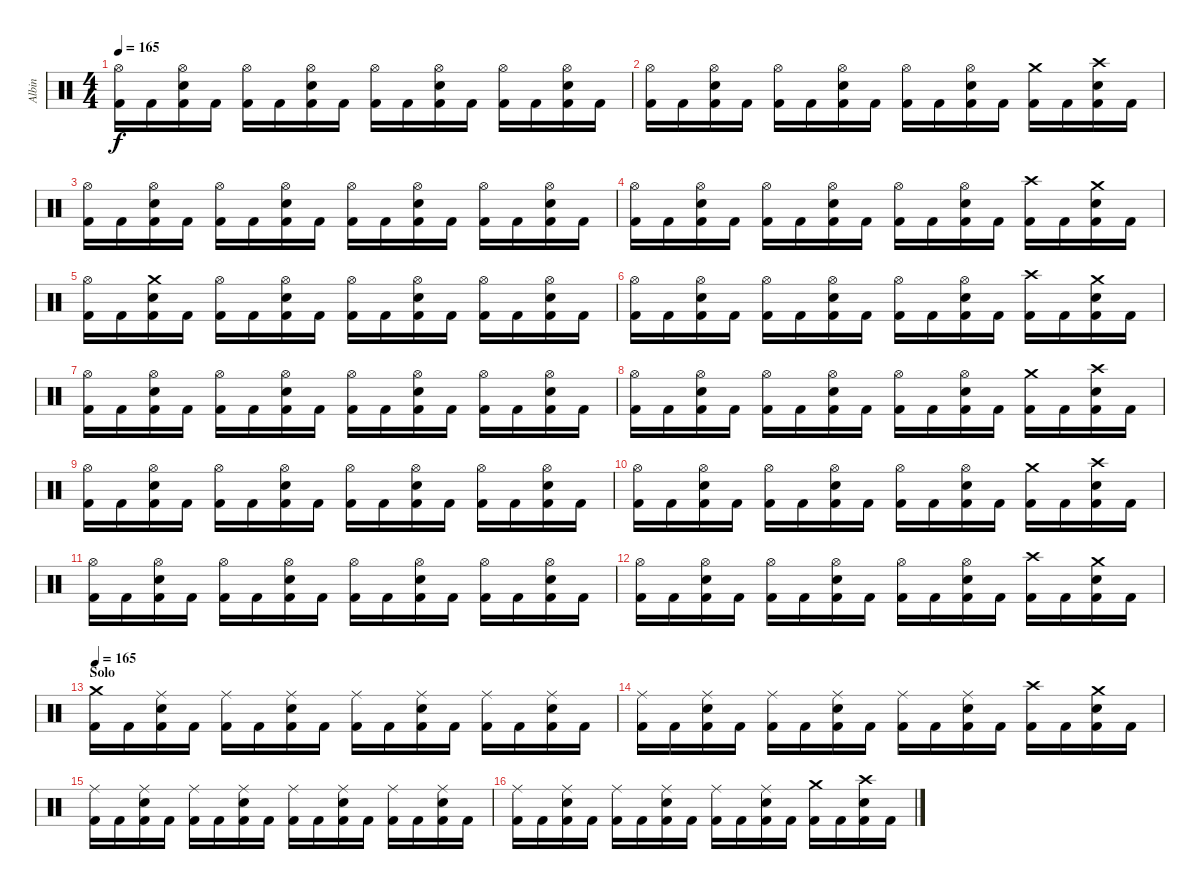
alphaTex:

\track ("Albin" "Albin") {instrument percussion}
\staff {score}
\articulation defaults
\ts (4 4)
\tempo 165
\clef neutral
\ks c
("Hi-Hat (open)" "Kick (hit) 2").16{dy f} "Kick (hit) 2".16 ("Hi-Hat (open)" "Electric Snare (hit)" "Kick (hit) 2").16 "Kick (hit) 2".16 ("Hi-Hat (open)" "Kick (hit) 2").16 "Kick (hit) 2".16 ("Hi-Hat (open)" "Electric Snare (hit)" "Kick (hit) 2").16 "Kick (hit) 2".16 ("Hi-Hat (open)" "Kick (hit) 2").16 "Kick (hit) 2".16 ("Hi-Hat (open)" "Electric Snare (hit)" "Kick (hit) 2").16 "Kick (hit) 2".16 ("Hi-Hat (open)" "Kick (hit) 2").16 "Kick (hit) 2".16 ("Hi-Hat (open)" "Electric Snare (hit)" "Kick (hit) 2").16 "Kick (hit) 2".16 |
("Hi-Hat (open)" "Kick (hit) 2").16 "Kick (hit) 2".16 ("Hi-Hat (open)" "Electric Snare (hit)" "Kick (hit) 2").16 "Kick (hit) 2".16 ("Hi-Hat (open)" "Kick (hit) 2").16 "Kick (hit) 2".16 ("Hi-Hat (open)" "Electric Snare (hit)" "Kick (hit) 2").16 "Kick (hit) 2".16 ("Hi-Hat (open)" "Kick (hit) 2").16 "Kick (hit) 2".16 ("Hi-Hat (open)" "Electric Snare (hit)" "Kick (hit) 2").16 "Kick (hit) 2".16 ("Crash medium (hit)" "Kick (hit) 2").16 "Kick (hit) 2".16 ("Crash high (hit)" "Electric Snare (hit)" "Kick (hit) 2").16 "Kick (hit) 2".16 |
("Hi-Hat (open)" "Kick (hit) 2").16 "Kick (hit) 2".16 ("Hi-Hat (open)" "Electric Snare (hit)" "Kick (hit) 2").16 "Kick (hit) 2".16 ("Hi-Hat (open)" "Kick (hit) 2").16 "Kick (hit) 2".16 ("Hi-Hat (open)" "Electric Snare (hit)" "Kick (hit) 2").16 "Kick (hit) 2".16 ("Hi-Hat (open)" "Kick (hit) 2").16 "Kick (hit) 2".16 ("Hi-Hat (open)" "Electric Snare (hit)" "Kick (hit) 2").16 "Kick (hit) 2".16 ("Hi-Hat (open)" "Kick (hit) 2").16 "Kick (hit) 2".16 ("Hi-Hat (open)" "Electric Snare (hit)" "Kick (hit) 2").16 "Kick (hit) 2".16 |
("Hi-Hat (open)" "Kick (hit) 2").16 "Kick (hit) 2".16 ("Hi-Hat (open)" "Electric Snare (hit)" "Kick (hit) 2").16 "Kick (hit) 2".16 ("Hi-Hat (open)" "Kick (hit) 2").16 "Kick (hit) 2".16 ("Hi-Hat (open)" "Electric Snare (hit)" "Kick (hit) 2").16 "Kick (hit) 2".16 ("Hi-Hat (open)" "Kick (hit) 2").16 "Kick (hit) 2".16 ("Hi-Hat (open)" "Electric Snare (hit)" "Kick (hit) 2").16 "Kick (hit) 2".16 ("Crash high (hit)" "Kick (hit) 2").16 "Kick (hit) 2".16 ("Crash medium (hit)" "Electric Snare (hit)" "Kick (hit) 2").16 "Kick (hit) 2".16 |
("Hi-Hat (open)" "Kick (hit) 2").16 "Kick (hit) 2".16 ("Crash medium (hit)" "Electric Snare (hit)" "Kick (hit) 2").16 "Kick (hit) 2".16 ("Hi-Hat (open)" "Kick (hit) 2").16 "Kick (hit) 2".16 ("Hi-Hat (open)" "Electric Snare (hit)" "Kick (hit) 2").16 "Kick (hit) 2".16 ("Hi-Hat (open)" "Kick (hit) 2").16 "Kick (hit) 2".16 ("Hi-Hat (open)" "Electric Snare (hit)" "Kick (hit) 2").16 "Kick (hit) 2".16 ("Hi-Hat (open)" "Kick (hit) 2").16 "Kick (hit) 2".16 ("Hi-Hat (open)" "Electric Snare (hit)" "Kick (hit) 2").16 "Kick (hit) 2".16 |
("Hi-Hat (open)" "Kick (hit) 2").16 "Kick (hit) 2".16 ("Hi-Hat (open)" "Electric Snare (hit)" "Kick (hit) 2").16 "Kick (hit) 2".16 ("Hi-Hat (open)" "Kick (hit) 2").16 "Kick (hit) 2".16 ("Hi-Hat (open)" "Electric Snare (hit)" "Kick (hit) 2").16 "Kick (hit) 2".16 ("Hi-Hat (open)" "Kick (hit) 2").16 "Kick (hit) 2".16 ("Hi-Hat (open)" "Electric Snare (hit)" "Kick (hit) 2").16 "Kick (hit) 2".16 ("Crash high (hit)" "Kick (hit) 2").16 "Kick (hit) 2".16 ("Crash medium (hit)" "Electric Snare (hit)" "Kick (hit) 2").16 "Kick (hit) 2".16 |
("Hi-Hat (open)" "Kick (hit) 2").16 "Kick (hit) 2".16 ("Hi-Hat (open)" "Electric Snare (hit)" "Kick (hit) 2").16 "Kick (hit) 2".16 ("Hi-Hat (open)" "Kick (hit) 2").16 "Kick (hit) 2".16 ("Hi-Hat (open)" "Electric Snare (hit)" "Kick (hit) 2").16 "Kick (hit) 2".16 ("Hi-Hat (open)" "Kick (hit) 2").16 "Kick (hit) 2".16 ("Hi-Hat (open)" "Electric Snare (hit)" "Kick (hit) 2").16 "Kick (hit) 2".16 ("Hi-Hat (open)" "Kick (hit) 2").16 "Kick (hit) 2".16 ("Hi-Hat (open)" "Electric Snare (hit)" "Kick (hit) 2").16 "Kick (hit) 2".16 |
("Hi-Hat (open)" "Kick (hit) 2").16 "Kick (hit) 2".16 ("Hi-Hat (open)" "Electric Snare (hit)" "Kick (hit) 2").16 "Kick (hit) 2".16 ("Hi-Hat (open)" "Kick (hit) 2").16 "Kick (hit) 2".16 ("Hi-Hat (open)" "Electric Snare (hit)" "Kick (hit) 2").16 "Kick (hit) 2".16 ("Hi-Hat (open)" "Kick (hit) 2").16 "Kick (hit) 2".16 ("Hi-Hat (open)" "Electric Snare (hit)" "Kick (hit) 2").16 "Kick (hit) 2".16 ("Crash medium (hit)" "Kick (hit) 2").16 "Kick (hit) 2".16 ("Crash high (hit)" "Electric Snare (hit)" "Kick (hit) 2").16 "Kick (hit) 2".16 |
("Hi-Hat (open)" "Kick (hit) 2").16 "Kick (hit) 2".16 ("Hi-Hat (open)" "Electric Snare (hit)" "Kick (hit) 2").16 "Kick (hit) 2".16 ("Hi-Hat (open)" "Kick (hit) 2").16 "Kick (hit) 2".16 ("Hi-Hat (open)" "Electric Snare (hit)" "Kick (hit) 2").16 "Kick (hit) 2".16 ("Hi-Hat (open)" "Kick (hit) 2").16 "Kick (hit) 2".16 ("Hi-Hat (open)" "Electric Snare (hit)" "Kick (hit) 2").16 "Kick (hit) 2".16 ("Hi-Hat (open)" "Kick (hit) 2").16 "Kick (hit) 2".16 ("Hi-Hat (open)" "Electric Snare (hit)" "Kick (hit) 2").16 "Kick (hit) 2".16 |
("Hi-Hat (open)" "Kick (hit) 2").16 "Kick (hit) 2".16 ("Hi-Hat (open)" "Electric Snare (hit)" "Kick (hit) 2").16 "Kick (hit) 2".16 ("Hi-Hat (open)" "Kick (hit) 2").16 "Kick (hit) 2".16 ("Hi-Hat (open)" "Electric Snare (hit)" "Kick (hit) 2").16 "Kick (hit) 2".16 ("Hi-Hat (open)" "Kick (hit) 2").16 "Kick (hit) 2".16 ("Hi-Hat (open)" "Electric Snare (hit)" "Kick (hit) 2").16 "Kick (hit) 2".16 ("Crash medium (hit)" "Kick (hit) 2").16 "Kick (hit) 2".16 ("Crash high (hit)" "Electric Snare (hit)" "Kick (hit) 2").16 "Kick (hit) 2".16 |
("Hi-Hat (open)" "Kick (hit) 2").16 "Kick (hit) 2".16 ("Hi-Hat (open)" "Electric Snare (hit)" "Kick (hit) 2").16 "Kick (hit) 2".16 ("Hi-Hat (open)" "Kick (hit) 2").16 "Kick (hit) 2".16 ("Hi-Hat (open)" "Electric Snare (hit)" "Kick (hit) 2").16 "Kick (hit) 2".16 ("Hi-Hat (open)" "Kick (hit) 2").16 "Kick (hit) 2".16 ("Hi-Hat (open)" "Electric Snare (hit)" "Kick (hit) 2").16 "Kick (hit) 2".16 ("Hi-Hat (open)" "Kick (hit) 2").16 "Kick (hit) 2".16 ("Hi-Hat (open)" "Electric Snare (hit)" "Kick (hit) 2").16 "Kick (hit) 2".16 |
("Hi-Hat (open)" "Kick (hit) 2").16 "Kick (hit) 2".16 ("Hi-Hat (open)" "Electric Snare (hit)" "Kick (hit) 2").16 "Kick (hit) 2".16 ("Hi-Hat (open)" "Kick (hit) 2").16 "Kick (hit) 2".16 ("Hi-Hat (open)" "Electric Snare (hit)" "Kick (hit) 2").16 "Kick (hit) 2".16 ("Hi-Hat (open)" "Kick (hit) 2").16 "Kick (hit) 2".16 ("Hi-Hat (open)" "Electric Snare (hit)" "Kick (hit) 2").16 "Kick (hit) 2".16 ("Crash high (hit)" "Kick (hit) 2").16 "Kick (hit) 2".16 ("Crash medium (hit)" "Electric Snare (hit)" "Kick (hit) 2").16 "Kick (hit) 2".16 |
\section ("" "Solo")
\tempo 165
("Crash medium (hit)" "Kick (hit) 2").16 "Kick (hit) 2".16 ("Ride (middle)" "Electric Snare (hit)" "Kick (hit) 2").16 "Kick (hit) 2".16 ("Ride (middle)" "Kick (hit) 2").16 "Kick (hit) 2".16 ("Ride (middle)" "Electric Snare (hit)" "Kick (hit) 2").16 "Kick (hit) 2".16 ("Ride (middle)" "Kick (hit) 2").16 "Kick (hit) 2".16 ("Ride (middle)" "Electric Snare (hit)" "Kick (hit) 2").16 "Kick (hit) 2".16 ("Ride (middle)" "Kick (hit) 2").16 "Kick (hit) 2".16 ("Ride (middle)" "Electric Snare (hit)" "Kick (hit) 2").16 "Kick (hit) 2".16 |
("Ride (middle)" "Kick (hit) 2").16 "Kick (hit) 2".16 ("Ride (middle)" "Electric Snare (hit)" "Kick (hit) 2").16 "Kick (hit) 2".16 ("Ride (middle)" "Kick (hit) 2").16 "Kick (hit) 2".16 ("Ride (middle)" "Electric Snare (hit)" "Kick (hit) 2").16 "Kick (hit) 2".16 ("Ride (middle)" "Kick (hit) 2").16 "Kick (hit) 2".16 ("Ride (middle)" "Electric Snare (hit)" "Kick (hit) 2").16 "Kick (hit) 2".16 ("Crash high (hit)" "Kick (hit) 2").16 "Kick (hit) 2".16 ("Crash medium (hit)" "Electric Snare (hit)" "Kick (hit) 2").16 "Kick (hit) 2".16 |
("Ride (middle)" "Kick (hit) 2").16 "Kick (hit) 2".16 ("Ride (middle)" "Electric Snare (hit)" "Kick (hit) 2").16 "Kick (hit) 2".16 ("Ride (middle)" "Kick (hit) 2").16 "Kick (hit) 2".16 ("Ride (middle)" "Electric Snare (hit)" "Kick (hit) 2").16 "Kick (hit) 2".16 ("Ride (middle)" "Kick (hit) 2").16 "Kick (hit) 2".16 ("Ride (middle)" "Electric Snare (hit)" "Kick (hit) 2").16 "Kick (hit) 2".16 ("Ride (middle)" "Kick (hit) 2").16 "Kick (hit) 2".16 ("Ride (middle)" "Electric Snare (hit)" "Kick (hit) 2").16 "Kick (hit) 2".16 |
("Ride (middle)" "Kick (hit) 2").16 "Kick (hit) 2".16 ("Ride (middle)" "Electric Snare (hit)" "Kick (hit) 2").16 "Kick (hit) 2".16 ("Ride (middle)" "Kick (hit) 2").16 "Kick (hit) 2".16 ("Ride (middle)" "Electric Snare (hit)" "Kick (hit) 2").16 "Kick (hit) 2".16 ("Ride (middle)" "Kick (hit) 2").16 "Kick (hit) 2".16 ("Ride (middle)" "Electric Snare (hit)" "Kick (hit) 2").16 "Kick (hit) 2".16 ("Crash medium (hit)" "Kick (hit) 2").16 "Kick (hit) 2".16 ("Crash high (hit)" "Electric Snare (hit)" "Kick (hit) 2").16 "Kick (hit) 2".16
